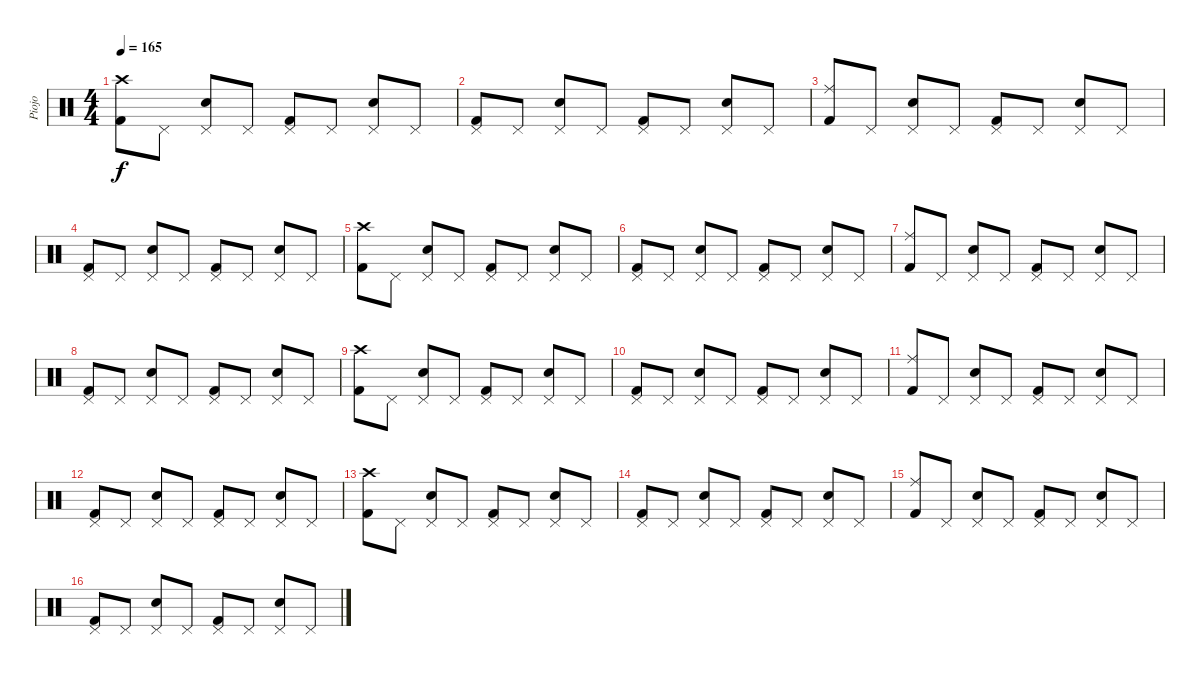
\track ("Piojo" "Piojo") {instrument percussion}
\staff {score}
\articulation defaults
\ts (4 4)
\tempo 165
\clef neutral
\ks c
("Crash high (hit)" "Kick (hit) 2").8{dy f} "Pedal Hi-Hat (hit)".8 ("Pedal Hi-Hat (hit)" "Electric Snare (hit)").8 "Pedal Hi-Hat (hit)".8 ("Pedal Hi-Hat (hit)" "Kick (hit) 2").8 "Pedal Hi-Hat (hit)".8 ("Pedal Hi-Hat (hit)" "Electric Snare (hit)").8 "Pedal Hi-Hat (hit)".8 |
("Pedal Hi-Hat (hit)" "Kick (hit) 2").8 "Pedal Hi-Hat (hit)".8 ("Pedal Hi-Hat (hit)" "Electric Snare (hit)").8 "Pedal Hi-Hat (hit)".8 ("Pedal Hi-Hat (hit)" "Kick (hit) 2").8 "Pedal Hi-Hat (hit)".8 ("Pedal Hi-Hat (hit)" "Electric Snare (hit)").8 "Pedal Hi-Hat (hit)".8 |
("Ride (middle)" "Kick (hit) 2").8 "Pedal Hi-Hat (hit)".8 ("Pedal Hi-Hat (hit)" "Electric Snare (hit)").8 "Pedal Hi-Hat (hit)".8 ("Pedal Hi-Hat (hit)" "Kick (hit) 2").8 "Pedal Hi-Hat (hit)".8 ("Pedal Hi-Hat (hit)" "Electric Snare (hit)").8 "Pedal Hi-Hat (hit)".8 |
("Pedal Hi-Hat (hit)" "Kick (hit) 2").8 "Pedal Hi-Hat (hit)".8 ("Pedal Hi-Hat (hit)" "Electric Snare (hit)").8 "Pedal Hi-Hat (hit)".8 ("Pedal Hi-Hat (hit)" "Kick (hit) 2").8 "Pedal Hi-Hat (hit)".8 ("Pedal Hi-Hat (hit)" "Electric Snare (hit)").8 "Pedal Hi-Hat (hit)".8 |
("Crash high (hit)" "Kick (hit) 2").8 "Pedal Hi-Hat (hit)".8 ("Pedal Hi-Hat (hit)" "Electric Snare (hit)").8 "Pedal Hi-Hat (hit)".8 ("Pedal Hi-Hat (hit)" "Kick (hit) 2").8 "Pedal Hi-Hat (hit)".8 ("Pedal Hi-Hat (hit)" "Electric Snare (hit)").8 "Pedal Hi-Hat (hit)".8 |
("Pedal Hi-Hat (hit)" "Kick (hit) 2").8 "Pedal Hi-Hat (hit)".8 ("Pedal Hi-Hat (hit)" "Electric Snare (hit)").8 "Pedal Hi-Hat (hit)".8 ("Pedal Hi-Hat (hit)" "Kick (hit) 2").8 "Pedal Hi-Hat (hit)".8 ("Pedal Hi-Hat (hit)" "Electric Snare (hit)").8 "Pedal Hi-Hat (hit)".8 |
("Ride (middle)" "Kick (hit) 2").8 "Pedal Hi-Hat (hit)".8 ("Pedal Hi-Hat (hit)" "Electric Snare (hit)").8 "Pedal Hi-Hat (hit)".8 ("Pedal Hi-Hat (hit)" "Kick (hit) 2").8 "Pedal Hi-Hat (hit)".8 ("Pedal Hi-Hat (hit)" "Electric Snare (hit)").8 "Pedal Hi-Hat (hit)".8 |
("Pedal Hi-Hat (hit)" "Kick (hit) 2").8 "Pedal Hi-Hat (hit)".8 ("Pedal Hi-Hat (hit)" "Electric Snare (hit)").8 "Pedal Hi-Hat (hit)".8 ("Pedal Hi-Hat (hit)" "Kick (hit) 2").8 "Pedal Hi-Hat (hit)".8 ("Pedal Hi-Hat (hit)" "Electric Snare (hit)").8 "Pedal Hi-Hat (hit)".8 |
("Crash high (hit)" "Kick (hit) 2").8 "Pedal Hi-Hat (hit)".8 ("Pedal Hi-Hat (hit)" "Electric Snare (hit)").8 "Pedal Hi-Hat (hit)".8 ("Pedal Hi-Hat (hit)" "Kick (hit) 2").8 "Pedal Hi-Hat (hit)".8 ("Pedal Hi-Hat (hit)" "Electric Snare (hit)").8 "Pedal Hi-Hat (hit)".8 |
("Pedal Hi-Hat (hit)" "Kick (hit) 2").8 "Pedal Hi-Hat (hit)".8 ("Pedal Hi-Hat (hit)" "Electric Snare (hit)").8 "Pedal Hi-Hat (hit)".8 ("Pedal Hi-Hat (hit)" "Kick (hit) 2").8 "Pedal Hi-Hat (hit)".8 ("Pedal Hi-Hat (hit)" "Electric Snare (hit)").8 "Pedal Hi-Hat (hit)".8 |
("Ride (middle)" "Kick (hit) 2").8 "Pedal Hi-Hat (hit)".8 ("Pedal Hi-Hat (hit)" "Electric Snare (hit)").8 "Pedal Hi-Hat (hit)".8 ("Pedal Hi-Hat (hit)" "Kick (hit) 2").8 "Pedal Hi-Hat (hit)".8 ("Pedal Hi-Hat (hit)" "Electric Snare (hit)").8 "Pedal Hi-Hat (hit)".8 |
("Pedal Hi-Hat (hit)" "Kick (hit) 2").8 "Pedal Hi-Hat (hit)".8 ("Pedal Hi-Hat (hit)" "Electric Snare (hit)").8 "Pedal Hi-Hat (hit)".8 ("Pedal Hi-Hat (hit)" "Kick (hit) 2").8 "Pedal Hi-Hat (hit)".8 ("Pedal Hi-Hat (hit)" "Electric Snare (hit)").8 "Pedal Hi-Hat (hit)".8 |
("Crash high (hit)" "Kick (hit) 2").8 "Pedal Hi-Hat (hit)".8 ("Pedal Hi-Hat (hit)" "Electric Snare (hit)").8 "Pedal Hi-Hat (hit)".8 ("Pedal Hi-Hat (hit)" "Kick (hit) 2").8 "Pedal Hi-Hat (hit)".8 ("Pedal Hi-Hat (hit)" "Electric Snare (hit)").8 "Pedal Hi-Hat (hit)".8 |
("Pedal Hi-Hat (hit)" "Kick (hit) 2").8 "Pedal Hi-Hat (hit)".8 ("Pedal Hi-Hat (hit)" "Electric Snare (hit)").8 "Pedal Hi-Hat (hit)".8 ("Pedal Hi-Hat (hit)" "Kick (hit) 2").8 "Pedal Hi-Hat (hit)".8 ("Pedal Hi-Hat (hit)" "Electric Snare (hit)").8 "Pedal Hi-Hat (hit)".8 |
("Ride (middle)" "Kick (hit) 2").8 "Pedal Hi-Hat (hit)".8 ("Pedal Hi-Hat (hit)" "Electric Snare (hit)").8 "Pedal Hi-Hat (hit)".8 ("Pedal Hi-Hat (hit)" "Kick (hit) 2").8 "Pedal Hi-Hat (hit)".8 ("Pedal Hi-Hat (hit)" "Electric Snare (hit)").8 "Pedal Hi-Hat (hit)".8 |
("Pedal Hi-Hat (hit)" "Kick (hit) 2").8 "Pedal Hi-Hat (hit)".8 ("Pedal Hi-Hat (hit)" "Electric Snare (hit)").8 "Pedal Hi-Hat (hit)".8 ("Pedal Hi-Hat (hit)" "Kick (hit) 2").8 "Pedal Hi-Hat (hit)".8 ("Pedal Hi-Hat (hit)" "Electric Snare (hit)").8 "Pedal Hi-Hat (hit)".8
